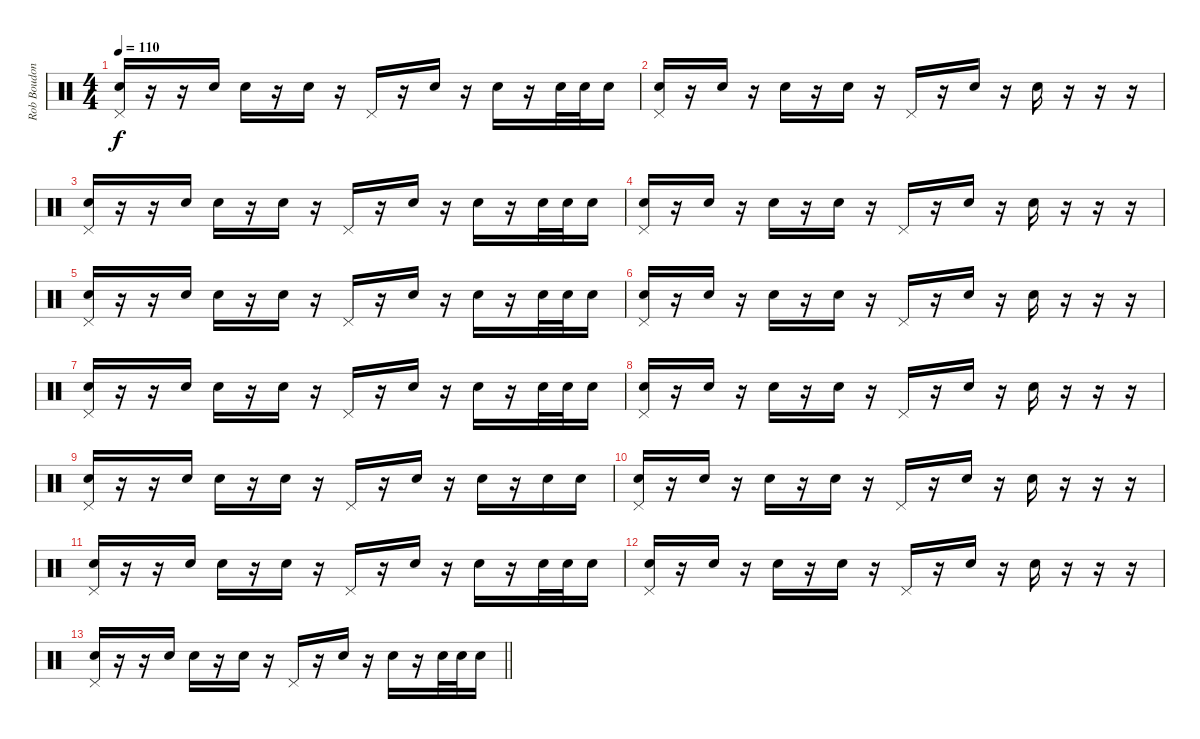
\track ("Rob Boudon [Drums]" "Rob Boudon") {instrument percussion}
\staff {score}
\articulation defaults
\ts (4 4)
\tempo 110
\clef neutral
\ks c
("Pedal Hi-Hat (hit)" "Electric Snare (hit)").16{dy f} r.16 r.16 "Electric Snare (hit)".16 "Electric Snare (hit)".16 r.16 "Electric Snare (hit)".16 r.16 "Pedal Hi-Hat (hit)".16 r.16 "Electric Snare (hit)".16 r.16 "Electric Snare (hit)".16 r.16 "Electric Snare (hit)".32 "Electric Snare (hit)".32 "Electric Snare (hit)".16 |
("Pedal Hi-Hat (hit)" "Electric Snare (hit)").16 r.16 "Electric Snare (hit)".16 r.16 "Electric Snare (hit)".16 r.16 "Electric Snare (hit)".16 r.16 "Pedal Hi-Hat (hit)".16 r.16 "Electric Snare (hit)".16 r.16 "Electric Snare (hit)".16 r.16 r.16 r.16 |
("Pedal Hi-Hat (hit)" "Electric Snare (hit)").16 r.16 r.16 "Electric Snare (hit)".16 "Electric Snare (hit)".16 r.16 "Electric Snare (hit)".16 r.16 "Pedal Hi-Hat (hit)".16 r.16 "Electric Snare (hit)".16 r.16 "Electric Snare (hit)".16 r.16 "Electric Snare (hit)".32 "Electric Snare (hit)".32 "Electric Snare (hit)".16 |
("Pedal Hi-Hat (hit)" "Electric Snare (hit)").16 r.16 "Electric Snare (hit)".16 r.16 "Electric Snare (hit)".16 r.16 "Electric Snare (hit)".16 r.16 "Pedal Hi-Hat (hit)".16 r.16 "Electric Snare (hit)".16 r.16 "Electric Snare (hit)".16 r.16 r.16 r.16 |
("Pedal Hi-Hat (hit)" "Electric Snare (hit)").16 r.16 r.16 "Electric Snare (hit)".16 "Electric Snare (hit)".16 r.16 "Electric Snare (hit)".16 r.16 "Pedal Hi-Hat (hit)".16 r.16 "Electric Snare (hit)".16 r.16 "Electric Snare (hit)".16 r.16 "Electric Snare (hit)".32 "Electric Snare (hit)".32 "Electric Snare (hit)".16 |
("Pedal Hi-Hat (hit)" "Electric Snare (hit)").16 r.16 "Electric Snare (hit)".16 r.16 "Electric Snare (hit)".16 r.16 "Electric Snare (hit)".16 r.16 "Pedal Hi-Hat (hit)".16 r.16 "Electric Snare (hit)".16 r.16 "Electric Snare (hit)".16 r.16 r.16 r.16 |
("Pedal Hi-Hat (hit)" "Electric Snare (hit)").16 r.16 r.16 "Electric Snare (hit)".16 "Electric Snare (hit)".16 r.16 "Electric Snare (hit)".16 r.16 "Pedal Hi-Hat (hit)".16 r.16 "Electric Snare (hit)".16 r.16 "Electric Snare (hit)".16 r.16 "Electric Snare (hit)".32 "Electric Snare (hit)".32 "Electric Snare (hit)".16 |
("Pedal Hi-Hat (hit)" "Electric Snare (hit)").16 r.16 "Electric Snare (hit)".16 r.16 "Electric Snare (hit)".16 r.16 "Electric Snare (hit)".16 r.16 "Pedal Hi-Hat (hit)".16 r.16 "Electric Snare (hit)".16 r.16 "Electric Snare (hit)".16 r.16 r.16 r.16 |
("Pedal Hi-Hat (hit)" "Electric Snare (hit)").16 r.16 r.16 "Electric Snare (hit)".16 "Electric Snare (hit)".16 r.16 "Electric Snare (hit)".16 r.16 "Pedal Hi-Hat (hit)".16 r.16 "Electric Snare (hit)".16 r.16 "Electric Snare (hit)".16 r.16 "Electric Snare (hit)".16 "Electric Snare (hit)".16 |
("Pedal Hi-Hat (hit)" "Electric Snare (hit)").16 r.16 "Electric Snare (hit)".16 r.16 "Electric Snare (hit)".16 r.16 "Electric Snare (hit)".16 r.16 "Pedal Hi-Hat (hit)".16 r.16 "Electric Snare (hit)".16 r.16 "Electric Snare (hit)".16 r.16 r.16 r.16 |
("Pedal Hi-Hat (hit)" "Electric Snare (hit)").16 r.16 r.16 "Electric Snare (hit)".16 "Electric Snare (hit)".16 r.16 "Electric Snare (hit)".16 r.16 "Pedal Hi-Hat (hit)".16 r.16 "Electric Snare (hit)".16 r.16 "Electric Snare (hit)".16 r.16 "Electric Snare (hit)".32 "Electric Snare (hit)".32 "Electric Snare (hit)".16 |
("Pedal Hi-Hat (hit)" "Electric Snare (hit)").16 r.16 "Electric Snare (hit)".16 r.16 "Electric Snare (hit)".16 r.16 "Electric Snare (hit)".16 r.16 "Pedal Hi-Hat (hit)".16 r.16 "Electric Snare (hit)".16 r.16 "Electric Snare (hit)".16 r.16 r.16 r.16 |
\barLineRight lightlight
("Pedal Hi-Hat (hit)" "Electric Snare (hit)").16 r.16 r.16 "Electric Snare (hit)".16 "Electric Snare (hit)".16 r.16 "Electric Snare (hit)".16 r.16 "Pedal Hi-Hat (hit)".16 r.16 "Electric Snare (hit)".16 r.16 "Electric Snare (hit)".16 r.16 "Electric Snare (hit)".32 "Electric Snare (hit)".32 "Electric Snare (hit)".16
